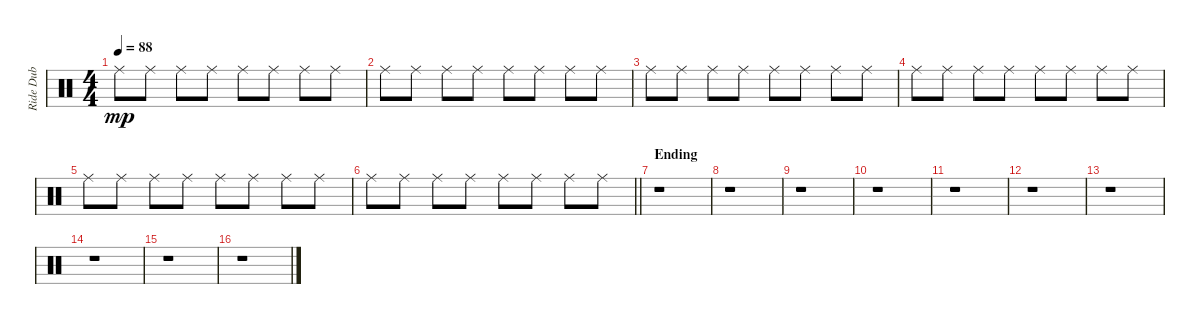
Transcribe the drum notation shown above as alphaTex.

\track ("Ride Dub" "Ride Dub") {instrument percussion}
\staff {score}
\articulation defaults
\ts (4 4)
\tempo 88
\clef neutral
\ks c "Ride (middle)".8{dy mp} "Ride (middle)".8 "Ride (middle)".8 "Ride (middle)".8 "Ride (middle)".8 "Ride (middle)".8 "Ride (middle)".8 "Ride (middle)".8
|
"Ride (middle)".8 "Ride (middle)".8 "Ride (middle)".8 "Ride (middle)".8 "Ride (middle)".8 "Ride (middle)".8 "Ride (middle)".8 "Ride (middle)".8 |
"Ride (middle)".8 "Ride (middle)".8 "Ride (middle)".8 "Ride (middle)".8 "Ride (middle)".8 "Ride (middle)".8 "Ride (middle)".8 "Ride (middle)".8 |
"Ride (middle)".8 "Ride (middle)".8 "Ride (middle)".8 "Ride (middle)".8 "Ride (middle)".8 "Ride (middle)".8 "Ride (middle)".8 "Ride (middle)".8 |
"Ride (middle)".8 "Ride (middle)".8 "Ride (middle)".8 "Ride (middle)".8 "Ride (middle)".8 "Ride (middle)".8 "Ride (middle)".8 "Ride (middle)".8 |
\barLineRight lightlight "Ride (middle)".8 "Ride (middle)".8 "Ride (middle)".8 "Ride (middle)".8 "Ride (middle)".8 "Ride (middle)".8 "Ride (middle)".8 "Ride (middle)".8
|
\section ("" "Ending")
r.1 |
r.1 |
r.1 |
r.1 |
r.1 |
r.1 |
r.1 |
r.1 |
r.1 |
r.1
